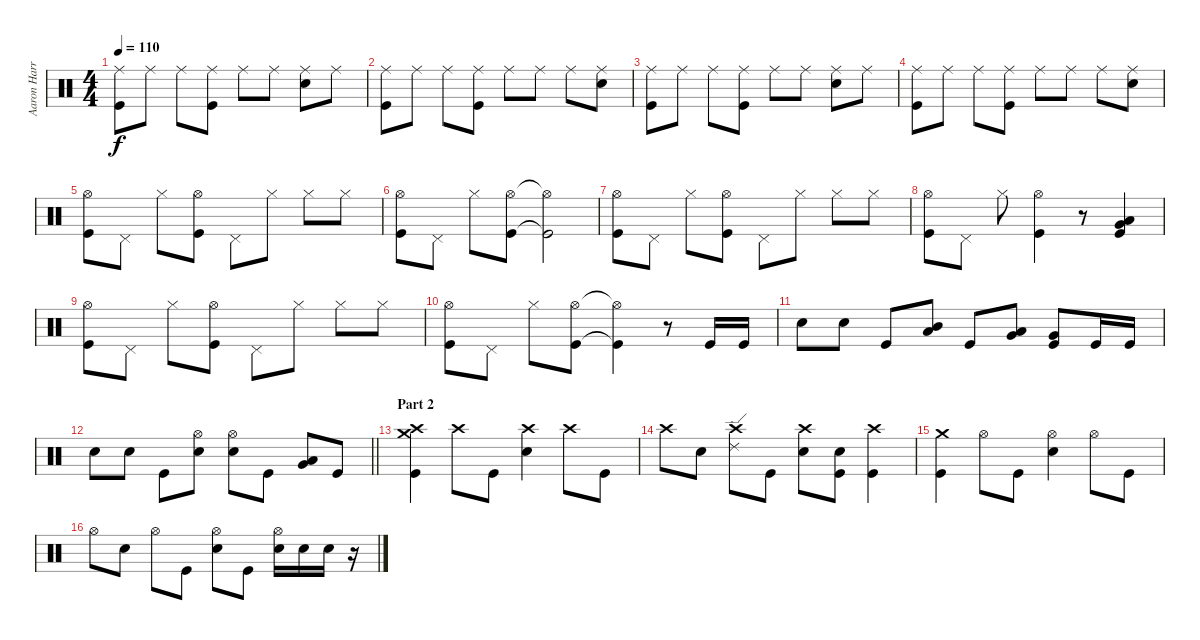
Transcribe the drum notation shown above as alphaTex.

\track ("Aaron Harris" "Aaron Harr") {instrument percussion}
\staff {score}
\articulation defaults
\ts (4 4)
\tempo 110
\clef neutral
\ks c
("Ride (middle)" "Kick (hit)").8{dy f} "Ride (middle)".8 "Ride (middle)".8 ("Ride (middle)" "Kick (hit)").8 "Ride (middle)".8 "Ride (middle)".8 ("Ride (middle)" "Snare (hit) 2").8 "Ride (middle)".8 |
("Ride (middle)" "Kick (hit)").8 "Ride (middle)".8 "Ride (middle)".8 ("Ride (middle)" "Kick (hit)").8 "Ride (middle)".8 "Ride (middle)".8 "Ride (middle)".8 ("Ride (middle)" "Snare (hit) 2").8 |
("Ride (middle)" "Kick (hit)").8 "Ride (middle)".8 "Ride (middle)".8 ("Ride (middle)" "Kick (hit)").8 "Ride (middle)".8 "Ride (middle)".8 ("Ride (middle)" "Snare (hit) 2").8 "Ride (middle)".8 |
("Ride (middle)" "Kick (hit)").8 "Ride (middle)".8 "Ride (middle)".8 ("Ride (middle)" "Kick (hit)").8 "Ride (middle)".8 "Ride (middle)".8 "Ride (middle)".8 ("Ride (middle)" "Snare (hit) 2").8 |
("Hi-Hat (open)" "Kick (hit)").8 "Pedal Hi-Hat (hit)".8 "Hi-Hat (closed)".8 ("Hi-Hat (open)" "Kick (hit)").8 "Pedal Hi-Hat (hit)".8 "Hi-Hat (closed)".8 "Hi-Hat (closed)".8 "Hi-Hat (closed)".8 |
("Hi-Hat (open)" "Kick (hit)").8 "Pedal Hi-Hat (hit)".8 "Hi-Hat (closed)".8 ("Hi-Hat (open)" "Kick (hit)").8 ("Hi-Hat (open)"{t} "Kick (hit)"{t}).2 |
("Hi-Hat (open)" "Kick (hit)").8 "Pedal Hi-Hat (hit)".8 "Hi-Hat (closed)".8 ("Hi-Hat (open)" "Kick (hit)").8 "Pedal Hi-Hat (hit)".8 "Hi-Hat (closed)".8 "Hi-Hat (closed)".8 "Hi-Hat (closed)".8 |
("Hi-Hat (open)" "Kick (hit)").8 "Pedal Hi-Hat (hit)".8 "Hi-Hat (closed)".8 ("Hi-Hat (open)" "Kick (hit)").4 r.8 ("Low Tom (hit)" "Very Low Tom (hit)" "Kick (hit)").4 |
("Hi-Hat (open)" "Kick (hit)").8 "Pedal Hi-Hat (hit)".8 "Hi-Hat (closed)".8 ("Hi-Hat (open)" "Kick (hit)").8 "Pedal Hi-Hat (hit)".8 "Hi-Hat (closed)".8 "Hi-Hat (closed)".8 "Hi-Hat (closed)".8 |
("Hi-Hat (open)" "Kick (hit)").8 "Pedal Hi-Hat (hit)".8 "Hi-Hat (closed)".8 ("Hi-Hat (open)" "Kick (hit)").8 ("Hi-Hat (open)"{t} "Kick (hit)"{t}).4 r.8 "Kick (hit)".16 "Kick (hit)".16 |
"Snare (hit) 2".8 "Snare (hit) 2".8 "Kick (hit)".8 ("Low Tom (hit)" "Mid Tom (hit)").8 "Kick (hit)".8 ("Very Low Tom (hit)" "Low Tom (hit)").8 ("Very Low Tom (hit)" "Kick (hit)").8 "Kick (hit)".16 "Kick (hit)".16 |
\barLineRight lightlight "Snare (hit) 2".8 "Snare (hit) 2".8 "Kick (hit)".8
("Hi-Hat (open)" "Snare (hit) 2").8 ("Hi-Hat (open)" "Snare (hit) 2").8 "Kick (hit)".8 ("Very Low Tom (hit)" "Low Tom (hit)").8 "Kick (hit)".8 |
\section ("" "Part 2")
("Crash high (hit)" "Crash medium (hit)" "Kick (hit)").4 "Crash high (hit)".8 "Kick (hit)".8 ("Crash high (hit)" "Snare (hit) 2").4 "Crash high (hit)".8 "Kick (hit)".8 |
"Crash high (hit)".8 "Snare (hit) 2".8 ("Crash high (hit)" "Ride (edge) 2").8 "Kick (hit)".8 ("Crash high (hit)" "Snare (hit) 2").8 ("Snare (hit) 2" "Kick (hit)").8 ("Crash high (hit)" "Kick (hit)").4 |
("Crash medium (hit)" "Kick (hit)").4 "Hi-Hat (open)".8 "Kick (hit)".8 ("Hi-Hat (open)" "Snare (hit) 2").4 "Hi-Hat (open)".8 "Kick (hit)".8 |
"Hi-Hat (open)".8 "Snare (hit) 2".8 "Hi-Hat (open)".8 "Kick (hit)".8 ("Hi-Hat (open)" "Snare (hit) 2").8 "Kick (hit)".8 ("Hi-Hat (open)" "Snare (hit) 2").16 "Snare (hit) 2".16 "Snare (hit) 2".16 r.16
